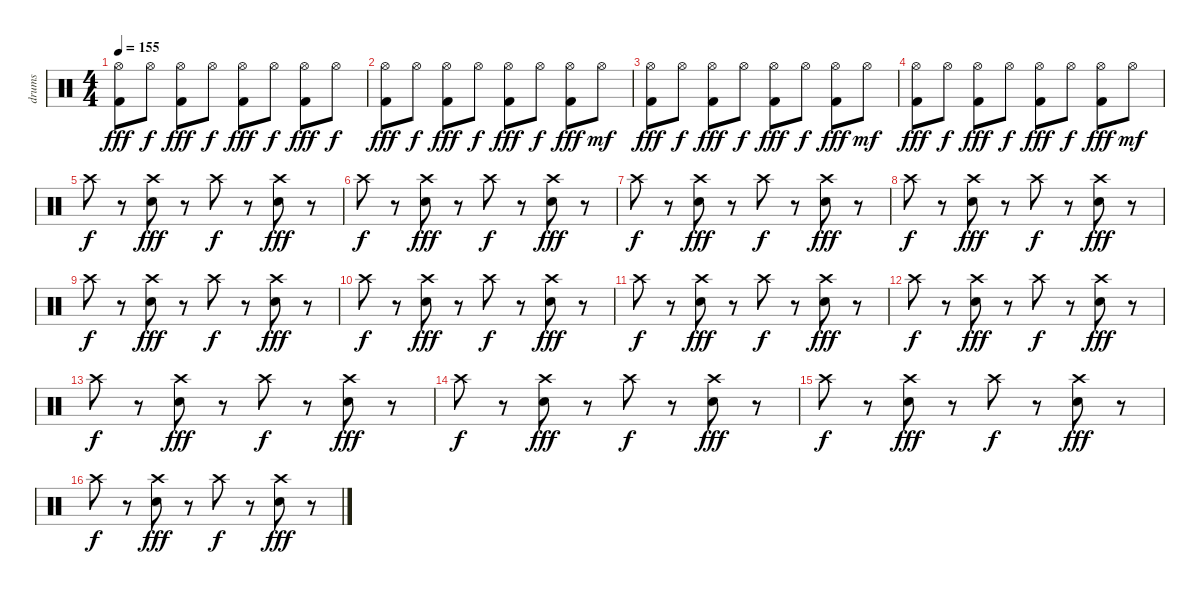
\track ("drums" "drums") {instrument percussion}
\staff {score}
\articulation defaults
\ts (4 4)
\tempo 155
\clef neutral
\ks c
("Hi-Hat (open)" "Kick (hit) 2").8{dy fff} "Hi-Hat (open)".8{dy f} ("Hi-Hat (open)" "Kick (hit) 2").8{dy fff} "Hi-Hat (open)".8{dy f} ("Hi-Hat (open)" "Kick (hit) 2").8{dy fff} "Hi-Hat (open)".8{dy f} ("Hi-Hat (open)" "Kick (hit) 2").8{dy fff} "Hi-Hat (open)".8{dy f} |
("Hi-Hat (open)" "Kick (hit) 2").8{dy fff} "Hi-Hat (open)".8{dy f} ("Hi-Hat (open)" "Kick (hit) 2").8{dy fff} "Hi-Hat (open)".8{dy f} ("Hi-Hat (open)" "Kick (hit) 2").8{dy fff} "Hi-Hat (open)".8{dy f} ("Hi-Hat (open)" "Kick (hit) 2").8{dy fff} "Hi-Hat (open)".8{dy mf} |
("Hi-Hat (open)" "Kick (hit) 2").8{dy fff} "Hi-Hat (open)".8{dy f} ("Hi-Hat (open)" "Kick (hit) 2").8{dy fff} "Hi-Hat (open)".8{dy f} ("Hi-Hat (open)" "Kick (hit) 2").8{dy fff} "Hi-Hat (open)".8{dy f} ("Hi-Hat (open)" "Kick (hit) 2").8{dy fff} "Hi-Hat (open)".8{dy mf} |
("Hi-Hat (open)" "Kick (hit) 2").8{dy fff} "Hi-Hat (open)".8{dy f} ("Hi-Hat (open)" "Kick (hit) 2").8{dy fff} "Hi-Hat (open)".8{dy f} ("Hi-Hat (open)" "Kick (hit) 2").8{dy fff} "Hi-Hat (open)".8{dy f} ("Hi-Hat (open)" "Kick (hit) 2").8{dy fff} "Hi-Hat (open)".8{dy mf} |
"Crash high (hit)".8{dy f} r.8 ("Crash high (hit)" "Snare (hit) 2").8{dy fff} r.8 "Crash high (hit)".8{dy f} r.8 ("Crash high (hit)" "Snare (hit) 2").8{dy fff} r.8 |
"Crash high (hit)".8{dy f} r.8 ("Crash high (hit)" "Snare (hit) 2").8{dy fff} r.8 "Crash high (hit)".8{dy f} r.8 ("Crash high (hit)" "Snare (hit) 2").8{dy fff} r.8 |
"Crash high (hit)".8{dy f} r.8 ("Crash high (hit)" "Snare (hit) 2").8{dy fff} r.8 "Crash high (hit)".8{dy f} r.8 ("Crash high (hit)" "Snare (hit) 2").8{dy fff} r.8 |
"Crash high (hit)".8{dy f} r.8 ("Crash high (hit)" "Snare (hit) 2").8{dy fff} r.8 "Crash high (hit)".8{dy f} r.8 ("Crash high (hit)" "Snare (hit) 2").8{dy fff} r.8 |
"Crash high (hit)".8{dy f} r.8 ("Crash high (hit)" "Snare (hit) 2").8{dy fff} r.8 "Crash high (hit)".8{dy f} r.8 ("Crash high (hit)" "Snare (hit) 2").8{dy fff} r.8 |
"Crash high (hit)".8{dy f} r.8 ("Crash high (hit)" "Snare (hit) 2").8{dy fff} r.8 "Crash high (hit)".8{dy f} r.8 ("Crash high (hit)" "Snare (hit) 2").8{dy fff} r.8 |
"Crash high (hit)".8{dy f} r.8 ("Crash high (hit)" "Snare (hit) 2").8{dy fff} r.8 "Crash high (hit)".8{dy f} r.8 ("Crash high (hit)" "Snare (hit) 2").8{dy fff} r.8 |
"Crash high (hit)".8{dy f} r.8 ("Crash high (hit)" "Snare (hit) 2").8{dy fff} r.8 "Crash high (hit)".8{dy f} r.8 ("Crash high (hit)" "Snare (hit) 2").8{dy fff} r.8 |
"Crash high (hit)".8{dy f} r.8 ("Crash high (hit)" "Snare (hit) 2").8{dy fff} r.8 "Crash high (hit)".8{dy f} r.8 ("Crash high (hit)" "Snare (hit) 2").8{dy fff} r.8 |
"Crash high (hit)".8{dy f} r.8 ("Crash high (hit)" "Snare (hit) 2").8{dy fff} r.8 "Crash high (hit)".8{dy f} r.8 ("Crash high (hit)" "Snare (hit) 2").8{dy fff} r.8 |
"Crash high (hit)".8{dy f} r.8 ("Crash high (hit)" "Snare (hit) 2").8{dy fff} r.8 "Crash high (hit)".8{dy f} r.8 ("Crash high (hit)" "Snare (hit) 2").8{dy fff} r.8 |
"Crash high (hit)".8{dy f} r.8 ("Crash high (hit)" "Snare (hit) 2").8{dy fff} r.8 "Crash high (hit)".8{dy f} r.8 ("Crash high (hit)" "Snare (hit) 2").8{dy fff} r.8
